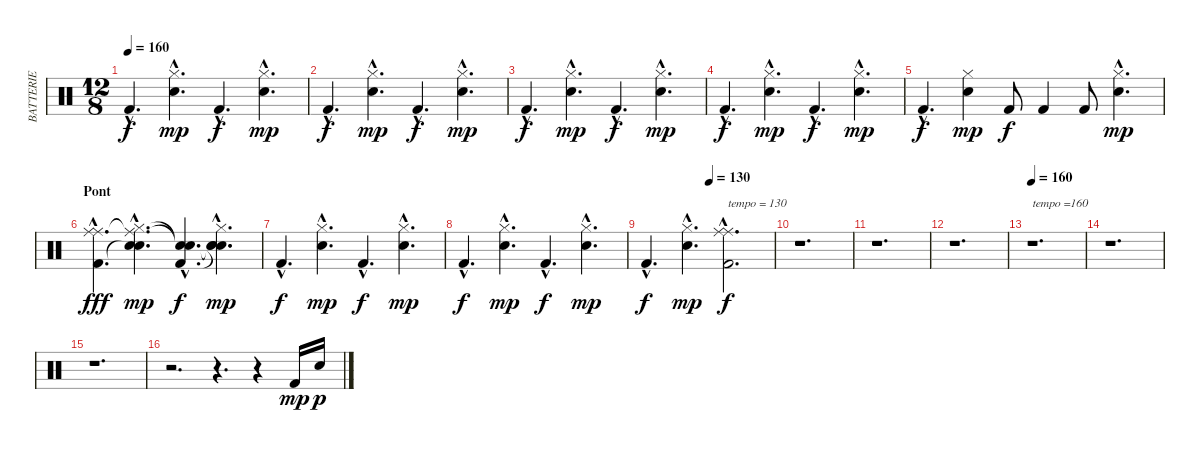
\track ("BATTERIE" "BATTERIE") {instrument percussion}
\staff {score}
\articulation defaults
\ts (12 8)
\tempo 160
\clef neutral
\ks c "Kick (hit) 2"{hac}.4{d dy f}
("Hi-Hat (closed)"{hac} "Snare (hit) 2"{hac}).4{d dy mp} "Kick (hit) 2"{hac}.4{d dy f} ("Hi-Hat (closed)"{hac} "Snare (hit) 2"{hac}).4{d dy mp} |
"Kick (hit) 2"{hac}.4{d dy f} ("Hi-Hat (closed)"{hac} "Snare (hit) 2"{hac}).4{d dy mp} "Kick (hit) 2"{hac}.4{d dy f} ("Hi-Hat (closed)"{hac} "Snare (hit) 2"{hac}).4{d dy mp} |
"Kick (hit) 2"{hac}.4{d dy f} ("Hi-Hat (closed)"{hac} "Snare (hit) 2"{hac}).4{d dy mp} "Kick (hit) 2"{hac}.4{d dy f} ("Hi-Hat (closed)"{hac} "Snare (hit) 2"{hac}).4{d dy mp} |
"Kick (hit) 2"{hac}.4{d dy f} ("Hi-Hat (closed)"{hac} "Snare (hit) 2"{hac}).4{d dy mp} "Kick (hit) 2"{hac}.4{d dy f} ("Hi-Hat (closed)"{hac} "Snare (hit) 2"{hac}).4{d dy mp} |
"Kick (hit) 2"{hac}.4{d dy f} ("Hi-Hat (closed)" "Snare (hit) 2").4{dy mp} "Kick (hit) 2".8{dy f} "Kick (hit) 2".4 "Kick (hit) 2".8 ("Hi-Hat (closed)"{hac} "Snare (hit) 2"{hac}).4{d dy mp} |
\section ("" "Pont")
("Ride (middle)"{hac} "Ride (middle)"{hac} "Kick (hit) 2"{hac}).4{d dy fff} ("Ride (middle)"{hac t} "Hi-Hat (closed)"{hac} "Snare (hit)"{hac t} "Snare (hit) 2"{hac}).4{d dy mp} ("Snare (hit)"{hac t} "Snare (hit)"{hac t} "Kick (hit) 2"{hac}).4{d dy f} ("Snare (hit)"{hac t} "Hi-Hat (closed)"{hac} "Snare (hit)"{hac t} "Snare (hit) 2"{hac}).4{d dy mp} |
"Kick (hit) 2"{hac}.4{d dy f} ("Hi-Hat (closed)"{hac} "Snare (hit) 2"{hac}).4{d dy mp} "Kick (hit) 2"{hac}.4{d dy f} ("Hi-Hat (closed)"{hac} "Snare (hit) 2"{hac}).4{d dy mp} |
"Kick (hit) 2"{hac}.4{d dy f} ("Hi-Hat (closed)"{hac} "Snare (hit) 2"{hac}).4{d dy mp} "Kick (hit) 2"{hac}.4{d dy f} ("Hi-Hat (closed)"{hac} "Snare (hit) 2"{hac}).4{d dy mp} |
\tempo (130 0.5)
"Kick (hit) 2"{hac}.4{d dy f} ("Hi-Hat (closed)"{hac} "Snare (hit) 2"{hac}).4{d dy mp} ("Ride (middle)"{hac} "Ride (middle)"{hac} "Kick (hit) 2"{hac}).2{d txt "tempo = 130" dy f} |
r.1{d} |
r.1{d} |
r.1{d} |
\tempo 160
r.1{d txt "tempo =160"} |
r.1{d} |
r.1{d} |
r.2{d} r.4{d} r.4 "Kick (hit) 2".16{dy mp} "Snare (hit) 2".16{dy p}
